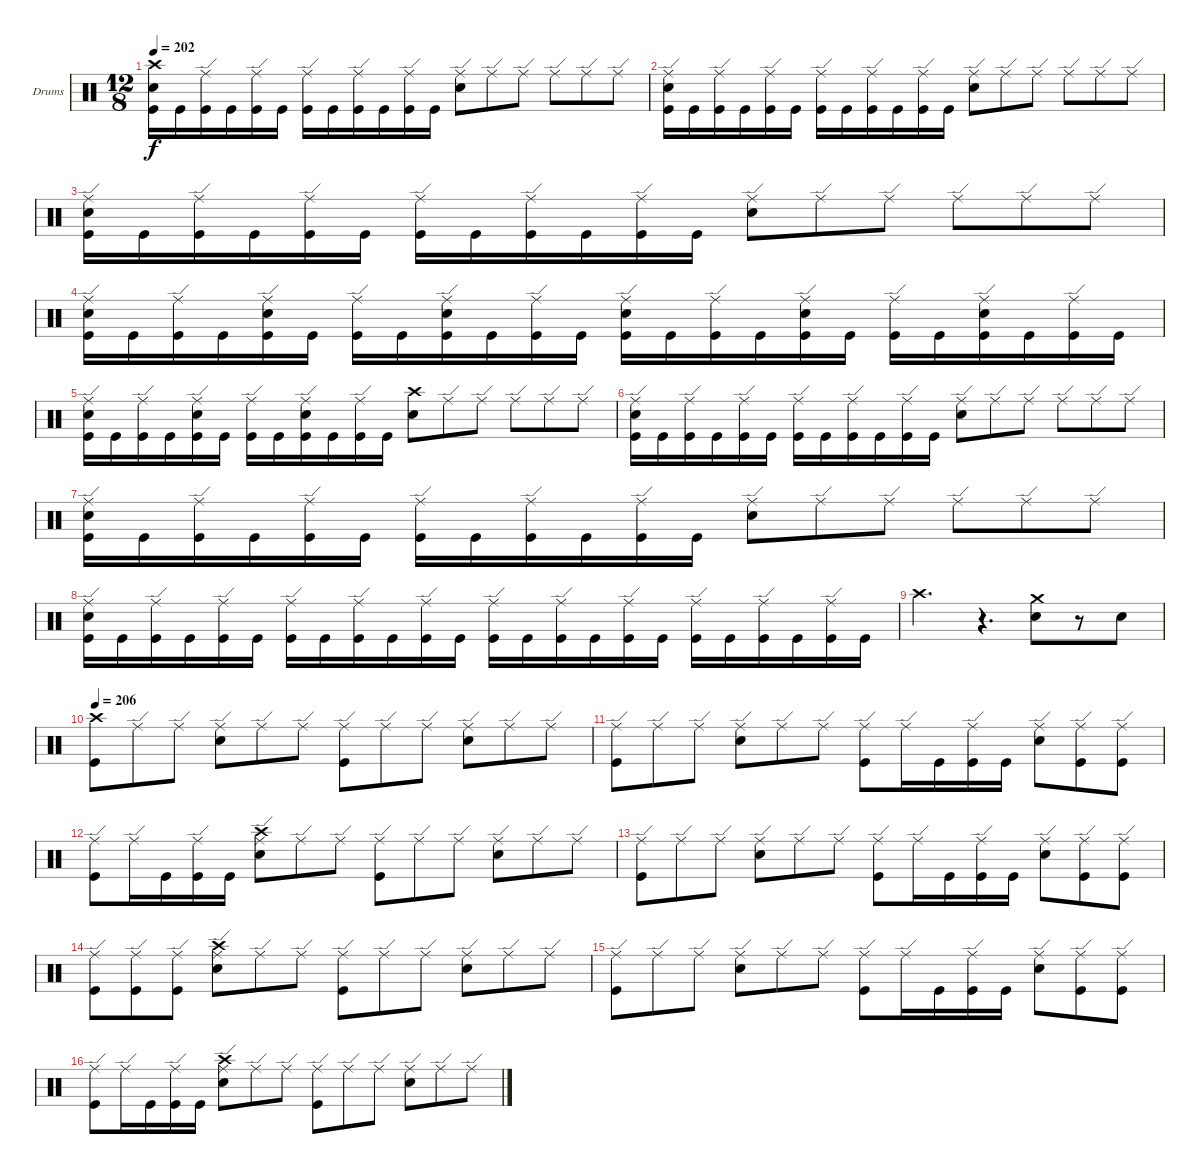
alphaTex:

\bracketExtendMode groupsimilarinstruments
\firstSystemTrackNameOrientation horizontal
\otherSystemsTrackNameOrientation horizontal
\track ("Drumkit" "Drums") {instrument percussion}
\staff {score}
\articulation defaults
\ts (12 8)
\tempo 202
\clef neutral
\ks c
("Kick (hit)" "Snare (hit) 2" "Crash high (hit)").16{dy f} "Kick (hit)".16 ("Kick (hit)" "Ride (edge)").16 "Kick (hit)".16 ("Kick (hit)" "Ride (edge)").16 "Kick (hit)".16 ("Kick (hit)" "Ride (edge)").16 "Kick (hit)".16 ("Kick (hit)" "Ride (edge)").16 "Kick (hit)".16 ("Kick (hit)" "Ride (edge)").16 "Kick (hit)".16 ("Snare (hit) 2" "Ride (edge)").8 "Ride (edge)".8 "Ride (edge)".8 "Ride (edge)".8 "Ride (edge)".8 "Ride (edge)".8 |
("Kick (hit)" "Snare (hit) 2" "Ride (edge)").16 "Kick (hit)".16 ("Kick (hit)" "Ride (edge)").16 "Kick (hit)".16 ("Kick (hit)" "Ride (edge)").16 "Kick (hit)".16 ("Kick (hit)" "Ride (edge)").16 "Kick (hit)".16 ("Kick (hit)" "Ride (edge)").16 "Kick (hit)".16 ("Kick (hit)" "Ride (edge)").16 "Kick (hit)".16 ("Snare (hit) 2" "Ride (edge)").8 "Ride (edge)".8 "Ride (edge)".8 "Ride (edge)".8 "Ride (edge)".8 "Ride (edge)".8 |
("Kick (hit)" "Snare (hit) 2" "Ride (edge)").16 "Kick (hit)".16 ("Kick (hit)" "Ride (edge)").16 "Kick (hit)".16 ("Kick (hit)" "Ride (edge)").16 "Kick (hit)".16 ("Kick (hit)" "Ride (edge)").16 "Kick (hit)".16 ("Kick (hit)" "Ride (edge)").16 "Kick (hit)".16 ("Kick (hit)" "Ride (edge)").16 "Kick (hit)".16 ("Snare (hit) 2" "Ride (edge)").8 "Ride (edge)".8 "Ride (edge)".8 "Ride (edge)".8 "Ride (edge)".8 "Ride (edge)".8 |
("Kick (hit)" "Snare (hit) 2" "Ride (edge)").16 "Kick (hit)".16 ("Kick (hit)" "Ride (edge)").16 "Kick (hit)".16 ("Kick (hit)" "Snare (hit) 2" "Ride (edge)").16 "Kick (hit)".16 ("Kick (hit)" "Ride (edge)").16 "Kick (hit)".16 ("Kick (hit)" "Snare (hit) 2" "Ride (edge)").16 "Kick (hit)".16 ("Kick (hit)" "Ride (edge)").16 "Kick (hit)".16 ("Kick (hit)" "Snare (hit) 2" "Ride (edge)").16 "Kick (hit)".16 ("Kick (hit)" "Ride (edge)").16 "Kick (hit)".16 ("Kick (hit)" "Snare (hit) 2" "Ride (edge)").16 "Kick (hit)".16 ("Kick (hit)" "Ride (edge)").16 "Kick (hit)".16 ("Kick (hit)" "Snare (hit) 2" "Ride (edge)").16 "Kick (hit)".16 ("Kick (hit)" "Ride (edge)").16 "Kick (hit)".16 |
("Kick (hit)" "Snare (hit) 2" "Ride (edge)").16 "Kick (hit)".16 ("Kick (hit)" "Ride (edge)").16 "Kick (hit)".16 ("Kick (hit)" "Snare (hit) 2" "Ride (edge)").16 "Kick (hit)".16 ("Kick (hit)" "Ride (edge)").16 "Kick (hit)".16 ("Kick (hit)" "Snare (hit) 2" "Ride (edge)").16 "Kick (hit)".16 ("Kick (hit)" "Ride (edge)").16 "Kick (hit)".16 ("Snare (hit) 2" "Crash high (hit)").8 "Ride (edge)".8 "Ride (edge)".8 "Ride (edge)".8 "Ride (edge)".8 "Ride (edge)".8 |
("Kick (hit)" "Snare (hit) 2" "Ride (edge)").16 "Kick (hit)".16 ("Kick (hit)" "Ride (edge)").16 "Kick (hit)".16 ("Kick (hit)" "Ride (edge)").16 "Kick (hit)".16 ("Kick (hit)" "Ride (edge)").16 "Kick (hit)".16 ("Kick (hit)" "Ride (edge)").16 "Kick (hit)".16 ("Kick (hit)" "Ride (edge)").16 "Kick (hit)".16 ("Snare (hit) 2" "Ride (edge)").8 "Ride (edge)".8 "Ride (edge)".8 "Ride (edge)".8 "Ride (edge)".8 "Ride (edge)".8 |
("Kick (hit)" "Snare (hit) 2" "Ride (edge)").16 "Kick (hit)".16 ("Kick (hit)" "Ride (edge)").16 "Kick (hit)".16 ("Kick (hit)" "Ride (edge)").16 "Kick (hit)".16 ("Kick (hit)" "Ride (edge)").16 "Kick (hit)".16 ("Kick (hit)" "Ride (edge)").16 "Kick (hit)".16 ("Kick (hit)" "Ride (edge)").16 "Kick (hit)".16 ("Snare (hit) 2" "Ride (edge)").8 "Ride (edge)".8 "Ride (edge)".8 "Ride (edge)".8 "Ride (edge)".8 "Ride (edge)".8 |
("Kick (hit)" "Ride (edge)" "Snare (hit) 2").16 "Kick (hit)".16 ("Kick (hit)" "Ride (edge)").16 "Kick (hit)".16 ("Kick (hit)" "Ride (edge)").16 "Kick (hit)".16 ("Kick (hit)" "Ride (edge)").16 "Kick (hit)".16 ("Kick (hit)" "Ride (edge)").16 "Kick (hit)".16 ("Kick (hit)" "Ride (edge)").16 "Kick (hit)".16 ("Kick (hit)" "Ride (edge)").16 "Kick (hit)".16 ("Kick (hit)" "Ride (edge)").16 "Kick (hit)".16 ("Kick (hit)" "Ride (edge)").16 "Kick (hit)".16 ("Kick (hit)" "Ride (edge)").16 "Kick (hit)".16 ("Kick (hit)" "Ride (edge)").16 "Kick (hit)".16 ("Kick (hit)" "Ride (edge)").16 "Kick (hit)".16 |
"Crash high (hit)".2{d} r.4{d} ("Crash medium (hit)" "Snare (hit) 2").8 r.8 "Snare (hit) 2".8 |
\tempo 206
("Crash high (hit)" "Kick (hit)").8 "Ride (edge)".8 "Ride (edge)".8 ("Ride (edge)" "Snare (hit) 2").8 "Ride (edge)".8 "Ride (edge)".8 ("Ride (edge)" "Kick (hit)").8 "Ride (edge)".8 "Ride (edge)".8 ("Ride (edge)" "Snare (hit) 2").8 "Ride (edge)".8 "Ride (edge)".8 |
("Ride (edge)" "Kick (hit)").8 "Ride (edge)".8 "Ride (edge)".8 ("Ride (edge)" "Snare (hit) 2").8 "Ride (edge)".8 "Ride (edge)".8 ("Ride (edge)" "Kick (hit)").8 "Ride (edge)".16 "Kick (hit)".16 ("Ride (edge)" "Kick (hit)").16 "Kick (hit)".16 ("Ride (edge)" "Snare (hit) 2").8 ("Ride (edge)" "Kick (hit)").8 ("Ride (edge)" "Kick (hit)").8 |
("Ride (edge)" "Kick (hit)").8 "Ride (edge)".16 "Kick (hit)".16 ("Ride (edge)" "Kick (hit)").16 "Kick (hit)".16 ("Ride (edge)" "Snare (hit) 2" "Crash high (hit)").8 "Ride (edge)".8 "Ride (edge)".8 ("Ride (edge)" "Kick (hit)").8 "Ride (edge)".8 "Ride (edge)".8 ("Ride (edge)" "Snare (hit) 2").8 "Ride (edge)".8 "Ride (edge)".8 |
("Ride (edge)" "Kick (hit)").8 "Ride (edge)".8 "Ride (edge)".8 ("Ride (edge)" "Snare (hit) 2").8 "Ride (edge)".8 "Ride (edge)".8 ("Ride (edge)" "Kick (hit)").8 "Ride (edge)".16 "Kick (hit)".16 ("Ride (edge)" "Kick (hit)").16 "Kick (hit)".16 ("Ride (edge)" "Snare (hit) 2").8 ("Ride (edge)" "Kick (hit)").8 ("Ride (edge)" "Kick (hit)").8 |
("Ride (edge)" "Kick (hit)").8 ("Ride (edge)" "Kick (hit)").8 ("Ride (edge)" "Kick (hit)").8 ("Ride (edge)" "Snare (hit) 2" "Crash high (hit)").8 "Ride (edge)".8 "Ride (edge)".8 ("Ride (edge)" "Kick (hit)").8 "Ride (edge)".8 "Ride (edge)".8 ("Ride (edge)" "Snare (hit) 2").8 "Ride (edge)".8 "Ride (edge)".8 |
("Ride (edge)" "Kick (hit)").8 "Ride (edge)".8 "Ride (edge)".8 ("Ride (edge)" "Snare (hit) 2").8 "Ride (edge)".8 "Ride (edge)".8 ("Ride (edge)" "Kick (hit)").8 "Ride (edge)".16 "Kick (hit)".16 ("Ride (edge)" "Kick (hit)").16 "Kick (hit)".16 ("Ride (edge)" "Snare (hit) 2").8 ("Ride (edge)" "Kick (hit)").8 ("Ride (edge)" "Kick (hit)").8 |
("Ride (edge)" "Kick (hit)").8 "Ride (edge)".16 "Kick (hit)".16 ("Ride (edge)" "Kick (hit)").16 "Kick (hit)".16 ("Ride (edge)" "Snare (hit) 2" "Crash high (hit)").8 "Ride (edge)".8 "Ride (edge)".8 ("Ride (edge)" "Kick (hit)").8 "Ride (edge)".8 "Ride (edge)".8 ("Ride (edge)" "Snare (hit) 2").8 "Ride (edge)".8 "Ride (edge)".8
